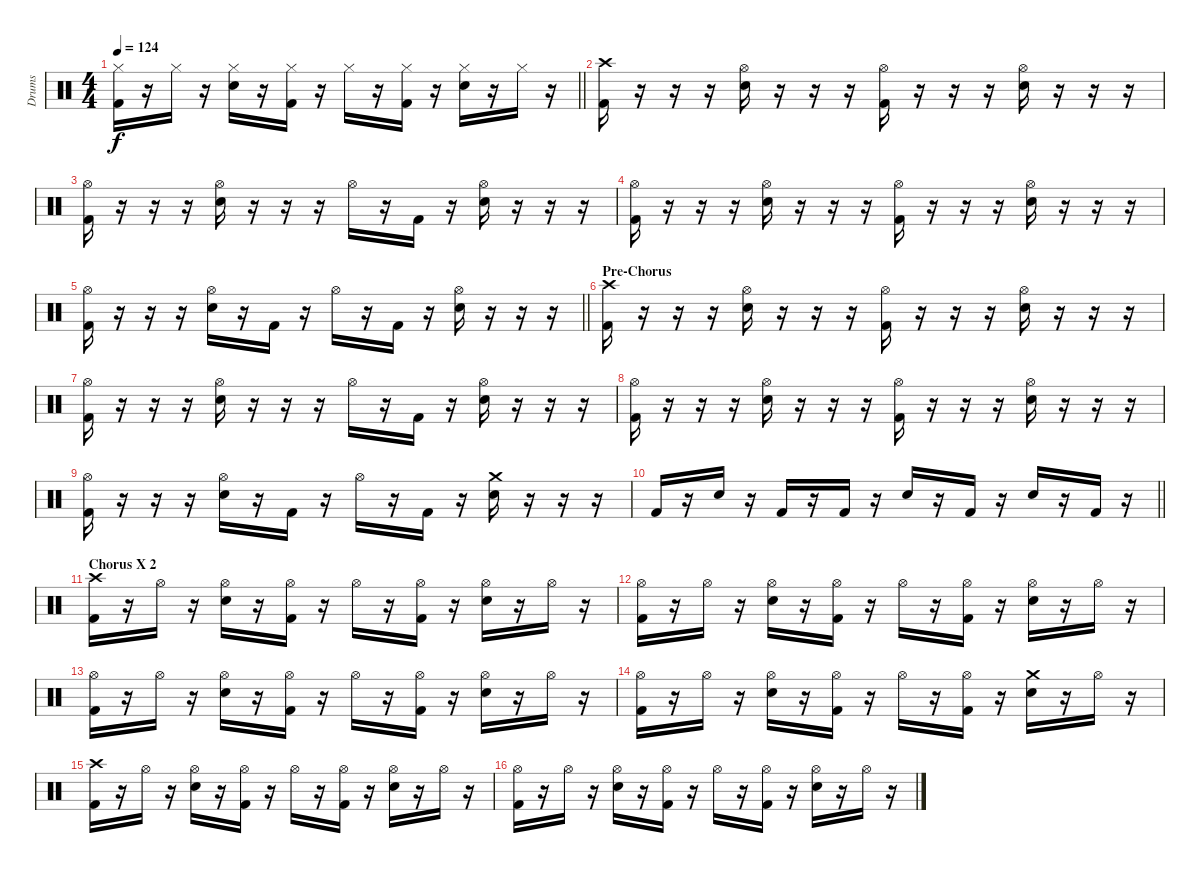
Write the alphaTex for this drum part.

\track ("Drums" "Drums") {instrument percussion}
\staff {score}
\articulation defaults
\ts (4 4)
\tempo 124
\clef neutral
\barLineRight lightlight
\ks c
("Hi-Hat (closed)" "Kick (hit) 2").16{dy f} r.16 "Hi-Hat (closed)".16 r.16 ("Hi-Hat (closed)" "Snare (hit) 2").16 r.16 ("Hi-Hat (closed)" "Kick (hit) 2").16 r.16 "Hi-Hat (closed)".16 r.16 ("Hi-Hat (closed)" "Kick (hit) 2").16 r.16 ("Hi-Hat (closed)" "Snare (hit) 2").16 r.16 "Hi-Hat (closed)".16 r.16 |
("Crash high (hit)" "Kick (hit) 2").16 r.16 r.16 r.16 ("Hi-Hat (open)" "Snare (hit) 2").16 r.16 r.16 r.16 ("Hi-Hat (open)" "Kick (hit) 2").16 r.16 r.16 r.16 ("Hi-Hat (open)" "Snare (hit) 2").16 r.16 r.16 r.16 |
("Hi-Hat (open)" "Kick (hit) 2").16 r.16 r.16 r.16 ("Hi-Hat (open)" "Snare (hit) 2").16 r.16 r.16 r.16 "Hi-Hat (open)".16 r.16 "Kick (hit) 2".16 r.16 ("Hi-Hat (open)" "Snare (hit) 2").16 r.16 r.16 r.16 |
("Hi-Hat (open)" "Kick (hit) 2").16 r.16 r.16 r.16 ("Hi-Hat (open)" "Snare (hit) 2").16 r.16 r.16 r.16 ("Hi-Hat (open)" "Kick (hit) 2").16 r.16 r.16 r.16 ("Hi-Hat (open)" "Snare (hit) 2").16 r.16 r.16 r.16 |
\barLineRight lightlight
("Hi-Hat (open)" "Kick (hit) 2").16 r.16 r.16 r.16 ("Hi-Hat (open)" "Snare (hit) 2").16 r.16 "Kick (hit) 2".16 r.16 "Hi-Hat (open)".16 r.16 "Kick (hit) 2".16 r.16 ("Hi-Hat (open)" "Snare (hit) 2").16 r.16 r.16 r.16 |
\section ("" "Pre-Chorus")
("Crash high (hit)" "Kick (hit) 2").16 r.16 r.16 r.16 ("Hi-Hat (open)" "Snare (hit) 2").16 r.16 r.16 r.16 ("Hi-Hat (open)" "Kick (hit) 2").16 r.16 r.16 r.16 ("Hi-Hat (open)" "Snare (hit) 2").16 r.16 r.16 r.16 |
("Hi-Hat (open)" "Kick (hit) 2").16 r.16 r.16 r.16 ("Hi-Hat (open)" "Snare (hit) 2").16 r.16 r.16 r.16 "Hi-Hat (open)".16 r.16 "Kick (hit) 2".16 r.16 ("Hi-Hat (open)" "Snare (hit) 2").16 r.16 r.16 r.16 |
("Hi-Hat (open)" "Kick (hit) 2").16 r.16 r.16 r.16 ("Hi-Hat (open)" "Snare (hit) 2").16 r.16 r.16 r.16 ("Hi-Hat (open)" "Kick (hit) 2").16 r.16 r.16 r.16 ("Hi-Hat (open)" "Snare (hit) 2").16 r.16 r.16 r.16 |
("Hi-Hat (open)" "Kick (hit) 2").16 r.16 r.16 r.16 ("Hi-Hat (open)" "Snare (hit) 2").16 r.16 "Kick (hit) 2".16 r.16 "Hi-Hat (open)".16 r.16 "Kick (hit) 2".16 r.16 ("Crash medium (hit)" "Snare (hit) 2").16 r.16 r.16 r.16 |
\barLineRight lightlight "Kick (hit) 2".16
r.16 "Snare (hit) 2".16 r.16 "Kick (hit) 2".16 r.16 "Kick (hit) 2".16 r.16 "Snare (hit) 2".16 r.16 "Kick (hit) 2".16 r.16 "Snare (hit) 2".16 r.16 "Kick (hit) 2".16 r.16 |
\section ("" "Chorus X 2")
("Crash high (hit)" "Kick (hit) 2").16 r.16 "Hi-Hat (open)".16 r.16 ("Hi-Hat (open)" "Snare (hit) 2").16 r.16 ("Hi-Hat (open)" "Kick (hit) 2").16 r.16 "Hi-Hat (open)".16 r.16 ("Hi-Hat (open)" "Kick (hit) 2").16 r.16 ("Hi-Hat (open)" "Snare (hit) 2").16 r.16 "Hi-Hat (open)".16 r.16 |
("Hi-Hat (open)" "Kick (hit) 2").16 r.16 "Hi-Hat (open)".16 r.16 ("Hi-Hat (open)" "Snare (hit) 2").16 r.16 ("Hi-Hat (open)" "Kick (hit) 2").16 r.16 "Hi-Hat (open)".16 r.16 ("Hi-Hat (open)" "Kick (hit) 2").16 r.16 ("Hi-Hat (open)" "Snare (hit) 2").16 r.16 "Hi-Hat (open)".16 r.16 |
("Hi-Hat (open)" "Kick (hit) 2").16 r.16 "Hi-Hat (open)".16 r.16 ("Hi-Hat (open)" "Snare (hit) 2").16 r.16 ("Hi-Hat (open)" "Kick (hit) 2").16 r.16 "Hi-Hat (open)".16 r.16 ("Hi-Hat (open)" "Kick (hit) 2").16 r.16 ("Hi-Hat (open)" "Snare (hit) 2").16 r.16 "Hi-Hat (open)".16 r.16 |
("Hi-Hat (open)" "Kick (hit) 2").16 r.16 "Hi-Hat (open)".16 r.16 ("Hi-Hat (open)" "Snare (hit) 2").16 r.16 ("Hi-Hat (open)" "Kick (hit) 2").16 r.16 "Hi-Hat (open)".16 r.16 ("Hi-Hat (open)" "Kick (hit) 2").16 r.16 ("Crash medium (hit)" "Snare (hit) 2").16 r.16 "Hi-Hat (open)".16 r.16 |
("Crash high (hit)" "Kick (hit) 2").16 r.16 "Hi-Hat (open)".16 r.16 ("Hi-Hat (open)" "Snare (hit) 2").16 r.16 ("Hi-Hat (open)" "Kick (hit) 2").16 r.16 "Hi-Hat (open)".16 r.16 ("Hi-Hat (open)" "Kick (hit) 2").16 r.16 ("Hi-Hat (open)" "Snare (hit) 2").16 r.16 "Hi-Hat (open)".16 r.16 |
("Hi-Hat (open)" "Kick (hit) 2").16 r.16 "Hi-Hat (open)".16 r.16 ("Hi-Hat (open)" "Snare (hit) 2").16 r.16 ("Hi-Hat (open)" "Kick (hit) 2").16 r.16 "Hi-Hat (open)".16 r.16 ("Hi-Hat (open)" "Kick (hit) 2").16 r.16 ("Hi-Hat (open)" "Snare (hit) 2").16 r.16 "Hi-Hat (open)".16 r.16
